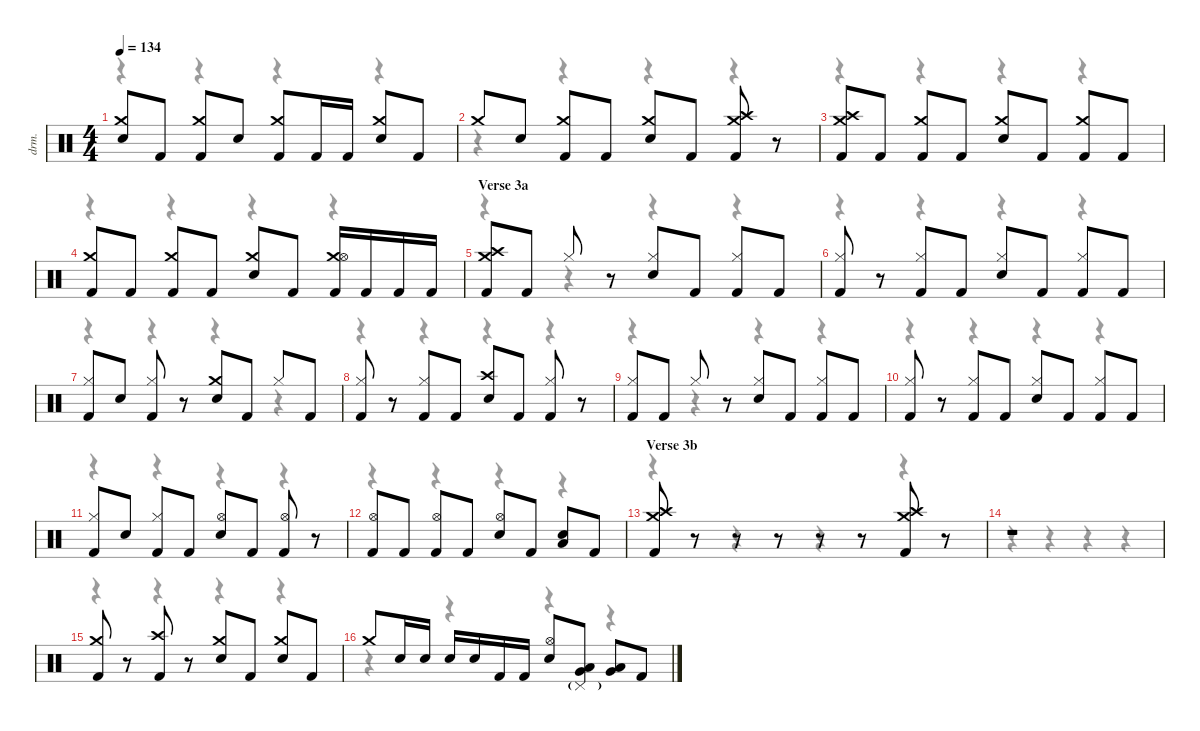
\defaultSystemsLayout 4
\hideDynamics
\bracketExtendMode nobrackets
\track ("Alex Ballew" "drm.") {instrument percussion}
\staff {score}
\articulation defaults
\voice
\ts (4 4)
\tempo 134
\clef neutral
\ks c
("Crash medium (hit)" "Snare (hit) 2").8{dy f} "Kick (hit) 2".8 ("Crash medium (hit)" "Kick (hit) 2").8 "Snare (hit) 2".8 ("Crash medium (hit)" "Kick (hit) 2").8 "Kick (hit) 2".16 "Kick (hit) 2".16 ("Crash medium (hit)" "Snare (hit) 2").8 "Kick (hit) 2".8 |
"Crash medium (hit)".8 "Snare (hit) 2".8 ("Crash medium (hit)" "Kick (hit) 2").8 "Kick (hit) 2".8 ("Crash medium (hit)" "Snare (hit) 2").8 "Kick (hit) 2".8 ("Crash medium (hit)" "Crash high (hit)" "Kick (hit) 2").8 r.8 |
("Crash medium (hit)" "Crash high (hit)" "Kick (hit) 2").8 "Kick (hit) 2".8 ("Crash medium (hit)" "Kick (hit) 2").8 "Kick (hit) 2".8 ("Crash medium (hit)" "Snare (hit) 2").8 "Kick (hit) 2".8 ("Crash medium (hit)" "Kick (hit) 2").8 "Kick (hit) 2".8 |
("Crash medium (hit)" "Kick (hit) 2").8 "Kick (hit) 2".8 ("Crash medium (hit)" "Kick (hit) 2").8 "Kick (hit) 2".8 ("Crash medium (hit)" "Snare (hit) 2").8 "Kick (hit) 2".8 ("Crash medium (hit)" "Hi-Hat (open)" "Kick (hit) 2").16 "Kick (hit) 2".16 "Kick (hit) 2".16 "Kick (hit) 2".16 |
\section ("" "Verse 3a")
("Crash medium (hit)" "Crash high (hit)" "Kick (hit) 2").8 "Kick (hit) 2".8 "Hi-Hat (closed)".8 r.8 ("Hi-Hat (closed)" "Snare (hit) 2").8 "Kick (hit) 2".8 ("Hi-Hat (closed)" "Kick (hit) 2").8 "Kick (hit) 2".8 |
("Hi-Hat (closed)" "Kick (hit) 2").8 r.8 ("Hi-Hat (closed)" "Kick (hit) 2").8 "Kick (hit) 2".8 ("Hi-Hat (closed)" "Snare (hit) 2").8 "Kick (hit) 2".8 ("Hi-Hat (closed)" "Kick (hit) 2").8 "Kick (hit) 2".8 |
("Hi-Hat (closed)" "Kick (hit) 2").8 "Snare (hit) 2".8 ("Hi-Hat (closed)" "Kick (hit) 2").8 r.8 ("Crash medium (hit)" "Snare (hit) 2").8 "Kick (hit) 2".8 "Hi-Hat (closed)".8 "Kick (hit) 2".8 |
("Hi-Hat (closed)" "Kick (hit) 2").8 r.8 ("Hi-Hat (closed)" "Kick (hit) 2").8 "Kick (hit) 2".8 ("Crash high (hit)" "Snare (hit) 2").8 "Kick (hit) 2".8 ("Hi-Hat (closed)" "Kick (hit) 2").8 r.8 |
("Hi-Hat (closed)" "Kick (hit) 2").8 "Kick (hit) 2".8 "Hi-Hat (closed)".8 r.8 ("Hi-Hat (closed)" "Snare (hit) 2").8 "Kick (hit) 2".8 ("Hi-Hat (closed)" "Kick (hit) 2").8 "Kick (hit) 2".8 |
("Hi-Hat (closed)" "Kick (hit) 2").8 r.8 ("Hi-Hat (closed)" "Kick (hit) 2").8 "Kick (hit) 2".8 ("Hi-Hat (closed)" "Snare (hit) 2").8 "Kick (hit) 2".8 ("Hi-Hat (closed)" "Kick (hit) 2").8 "Kick (hit) 2".8 |
("Hi-Hat (closed)" "Kick (hit) 2").8 "Snare (hit) 2".8 ("Hi-Hat (closed)" "Kick (hit) 2").8 "Kick (hit) 2".8 ("Hi-Hat (open)" "Snare (hit) 2").8 "Kick (hit) 2".8 ("Hi-Hat (open)" "Kick (hit) 2").8 r.8 |
("Hi-Hat (open)" "Kick (hit) 2").8 "Kick (hit) 2".8 ("Hi-Hat (open)" "Kick (hit) 2").8 "Kick (hit) 2".8 ("Hi-Hat (open)" "Snare (hit) 2").8 "Kick (hit) 2".8 ("Low Floor Tom (hit)" "Snare (hit) 2").8 "Kick (hit) 2".8 |
\section ("" "Verse 3b")
("Crash medium (hit)" "Crash high (hit)" "Kick (hit) 2").8 r.8 r.8 r.8 r.8 r.8 ("Crash medium (hit)" "Crash high (hit)" "Kick (hit) 2").8 r.8 |
r.1 |
("Crash medium (hit)" "Kick (hit) 2").8 r.8 ("Crash high (hit)" "Kick (hit) 2").8 r.8 ("Crash medium (hit)" "Snare (hit) 2").8 "Kick (hit) 2".8 ("Crash medium (hit)" "Snare (hit) 2").8 "Kick (hit) 2".8 |
"Crash medium (hit)".8 "Snare (hit) 2".16 "Snare (hit) 2".16 "Snare (hit) 2".16 "Snare (hit) 2".16 "Kick (hit) 2".16 "Kick (hit) 2".16 ("Hi-Hat (open)" "Snare (hit) 2").8 ("Pedal Hi-Hat (hit)"{g} "Low Tom (hit)" "Very Low Tom (hit)").8 ("Low Tom (hit)" "Very Low Tom (hit)").8 "Kick (hit) 2".8
\voice
\clef neutral
\ottava regular
\simile none
\ks c
r.4{dy mf} r.4 r.4 r.4 |
r.4 r.4 r.4 r.4 |
r.4 r.4 r.4 r.4 |
r.4 r.4 r.4 r.4 |
r.4 r.4 r.4 r.4 |
r.4 r.4 r.4 r.4 |
r.4 r.4 r.4 r.4 |
r.4 r.4 r.4 r.4 |
r.4 r.4 r.4 r.4 |
r.4 r.4 r.4 r.4 |
r.4 r.4 r.4 r.4 |
r.4 r.4 r.4 r.4 |
r.4 r.4 r.4 r.4 |
r.4 r.4 r.4 r.4 |
r.4 r.4 r.4 r.4 |
r.4 r.4 r.4 r.4
